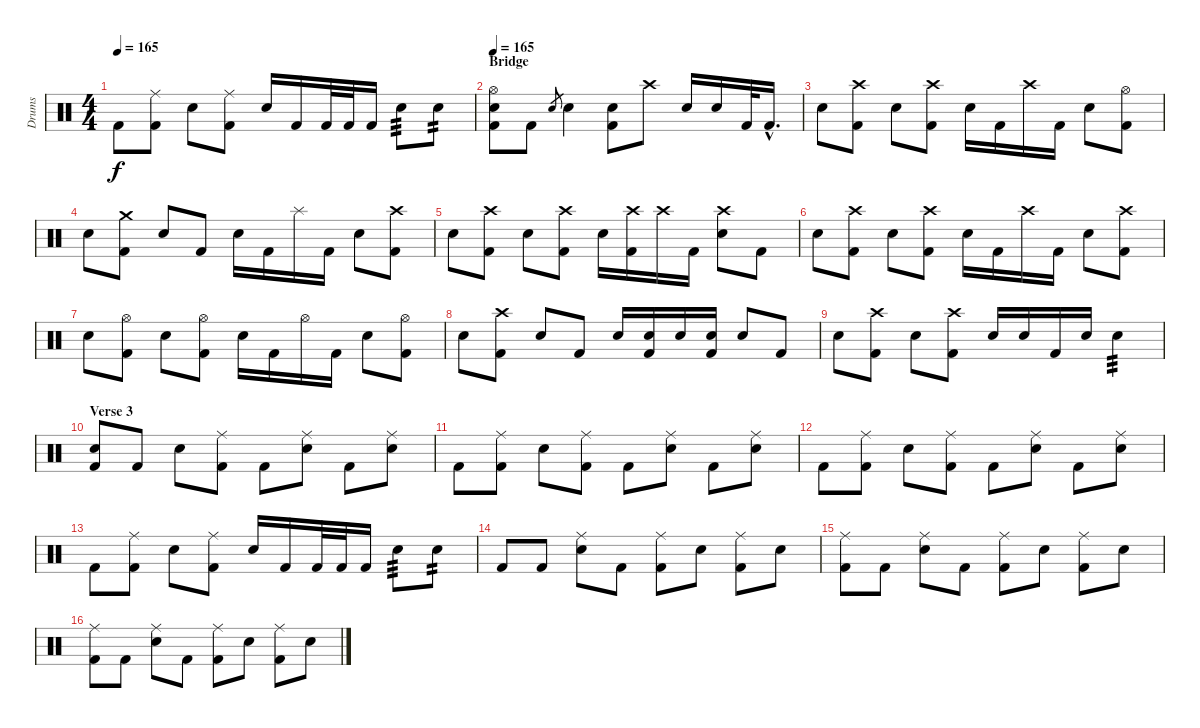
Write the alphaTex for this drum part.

\track ("Drums" "Drums") {instrument percussion}
\staff {score}
\articulation defaults
\ts (4 4)
\tempo 165
\clef neutral
\ks c "Kick (hit) 2".8{dy f}
("Ride (middle)" "Kick (hit) 2").8 "Electric Snare (hit)".8 ("Ride (middle)" "Kick (hit) 2").8 "Electric Snare (hit)".16 "Kick (hit) 2".16 "Kick (hit) 2".32 "Kick (hit) 2".32 "Kick (hit) 2".16 "Electric Snare (hit)".8{tp 3} "Electric Snare (hit)".8{tp 2} |
\section ("" "Bridge")
\tempo 165
("Hi-Hat (open)" "Electric Snare (hit)" "Kick (hit) 2").8 "Kick (hit) 2".8 "Electric Snare (hit)".8{gr} "Electric Snare (hit)".4 ("Electric Snare (hit)" "Kick (hit) 2").8 "Crash high (hit)".8 "Electric Snare (hit)".16 "Electric Snare (hit)".16 "Kick (hit) 2".32 "Kick (hit) 2"{hac}.16{d} |
"Electric Snare (hit)".8 ("Crash high (hit)" "Kick (hit) 2").8 "Electric Snare (hit)".8 ("Crash high (hit)" "Kick (hit) 2").8 "Electric Snare (hit)".16 "Kick (hit) 2".16 "Crash high (hit)".16 "Kick (hit) 2".16 "Electric Snare (hit)".8 ("Hi-Hat (open)" "Kick (hit) 2").8 |
"Electric Snare (hit)".8 ("Crash medium (hit)" "Kick (hit) 2").8 "Electric Snare (hit)".8 "Kick (hit) 2".8 "Electric Snare (hit)".16 "Kick (hit) 2".16 "Splash (hit)".16 "Kick (hit) 2".16 "Electric Snare (hit)".8 ("Crash high (hit)" "Kick (hit) 2").8 |
"Electric Snare (hit)".8 ("Crash high (hit)" "Kick (hit) 2").8 "Electric Snare (hit)".8 ("Crash high (hit)" "Kick (hit) 2").8 "Electric Snare (hit)".16 ("Crash high (hit)" "Kick (hit) 2").16 "Crash high (hit)".16 "Kick (hit) 2".16 ("Crash high (hit)" "Electric Snare (hit)").8 "Kick (hit) 2".8 |
"Electric Snare (hit)".8 ("Crash high (hit)" "Kick (hit) 2").8 "Electric Snare (hit)".8 ("Crash high (hit)" "Kick (hit) 2").8 "Electric Snare (hit)".16 "Kick (hit) 2".16 "Crash high (hit)".16 "Kick (hit) 2".16 "Electric Snare (hit)".8 ("Crash high (hit)" "Kick (hit) 2").8 |
"Electric Snare (hit)".8 ("Hi-Hat (open)" "Kick (hit) 2").8 "Electric Snare (hit)".8 ("Hi-Hat (open)" "Kick (hit) 2").8 "Electric Snare (hit)".16 "Kick (hit) 2".16 "Hi-Hat (open)".16 "Kick (hit) 2".16 "Electric Snare (hit)".8 ("Hi-Hat (open)" "Kick (hit) 2").8 |
"Electric Snare (hit)".8 ("Crash high (hit)" "Kick (hit) 2").8 "Electric Snare (hit)".8 "Kick (hit) 2".8 "Electric Snare (hit)".16 ("Electric Snare (hit)" "Kick (hit) 2").16 "Electric Snare (hit)".16 ("Electric Snare (hit)" "Kick (hit) 2").16 "Electric Snare (hit)".8 "Kick (hit) 2".8 |
"Electric Snare (hit)".8 ("Crash high (hit)" "Kick (hit) 2").8 "Electric Snare (hit)".8 ("Crash high (hit)" "Kick (hit) 2").8 "Electric Snare (hit)".16 "Electric Snare (hit)".16 "Kick (hit) 2".16 "Electric Snare (hit)".16 "Electric Snare (hit)".4{tp 3} |
\section ("" "Verse 3")
("Electric Snare (hit)" "Kick (hit) 2").8 "Kick (hit) 2".8 "Electric Snare (hit)".8 ("Ride (middle)" "Kick (hit) 2").8 "Kick (hit) 2".8 ("Ride (middle)" "Electric Snare (hit)").8 "Kick (hit) 2".8 ("Ride (middle)" "Electric Snare (hit)").8 |
"Kick (hit) 2".8 ("Ride (middle)" "Kick (hit) 2").8 "Electric Snare (hit)".8 ("Ride (middle)" "Kick (hit) 2").8 "Kick (hit) 2".8 ("Ride (middle)" "Electric Snare (hit)").8 "Kick (hit) 2".8 ("Ride (middle)" "Electric Snare (hit)").8 |
"Kick (hit) 2".8 ("Ride (middle)" "Kick (hit) 2").8 "Electric Snare (hit)".8 ("Ride (middle)" "Kick (hit) 2").8 "Kick (hit) 2".8 ("Ride (middle)" "Electric Snare (hit)").8 "Kick (hit) 2".8 ("Ride (middle)" "Electric Snare (hit)").8 |
"Kick (hit) 2".8 ("Ride (middle)" "Kick (hit) 2").8 "Electric Snare (hit)".8 ("Ride (middle)" "Kick (hit) 2").8 "Electric Snare (hit)".16 "Kick (hit) 2".16 "Kick (hit) 2".32 "Kick (hit) 2".32 "Kick (hit) 2".16 "Electric Snare (hit)".8{tp 3} "Electric Snare (hit)".8{tp 2} |
"Kick (hit) 2".8 "Kick (hit) 2".8 ("Ride (middle)" "Electric Snare (hit)").8 "Kick (hit) 2".8 ("Ride (middle)" "Kick (hit) 2").8 "Electric Snare (hit)".8 ("Ride (middle)" "Kick (hit) 2").8 "Electric Snare (hit)".8 |
("Ride (middle)" "Kick (hit) 2").8 "Kick (hit) 2".8 ("Ride (middle)" "Electric Snare (hit)").8 "Kick (hit) 2".8 ("Ride (middle)" "Kick (hit) 2").8 "Electric Snare (hit)".8 ("Ride (middle)" "Kick (hit) 2").8 "Electric Snare (hit)".8 |
("Ride (middle)" "Kick (hit) 2").8 "Kick (hit) 2".8 ("Ride (middle)" "Electric Snare (hit)").8 "Kick (hit) 2".8 ("Ride (middle)" "Kick (hit) 2").8 "Electric Snare (hit)".8 ("Ride (middle)" "Kick (hit) 2").8 "Electric Snare (hit)".8
